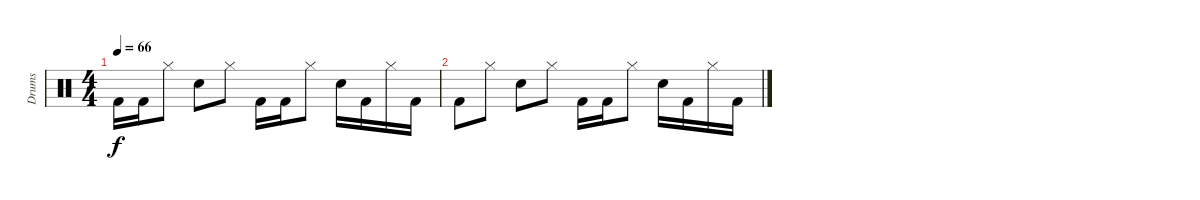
\track ("Drums" "Drums") {instrument percussion}
\staff {score}
\articulation defaults
\ts (4 4)
\tempo 66
\clef neutral
\ks c "Kick (hit) 2".16{dy f} "Kick (hit) 2".16 "Hi-Hat (closed)".8 "Snare (hit) 2".8 "Hi-Hat (closed)".8 "Kick (hit) 2".16 "Kick (hit) 2".16 "Hi-Hat (closed)".8 "Snare (hit) 2".16 "Kick (hit) 2".16 "Hi-Hat (closed)".16 "Kick (hit) 2".16
|
"Kick (hit) 2".8 "Hi-Hat (closed)".8 "Snare (hit) 2".8 "Hi-Hat (closed)".8 "Kick (hit) 2".16 "Kick (hit) 2".16 "Hi-Hat (closed)".8 "Snare (hit) 2".16 "Kick (hit) 2".16 "Hi-Hat (closed)".16 "Kick (hit) 2".16
